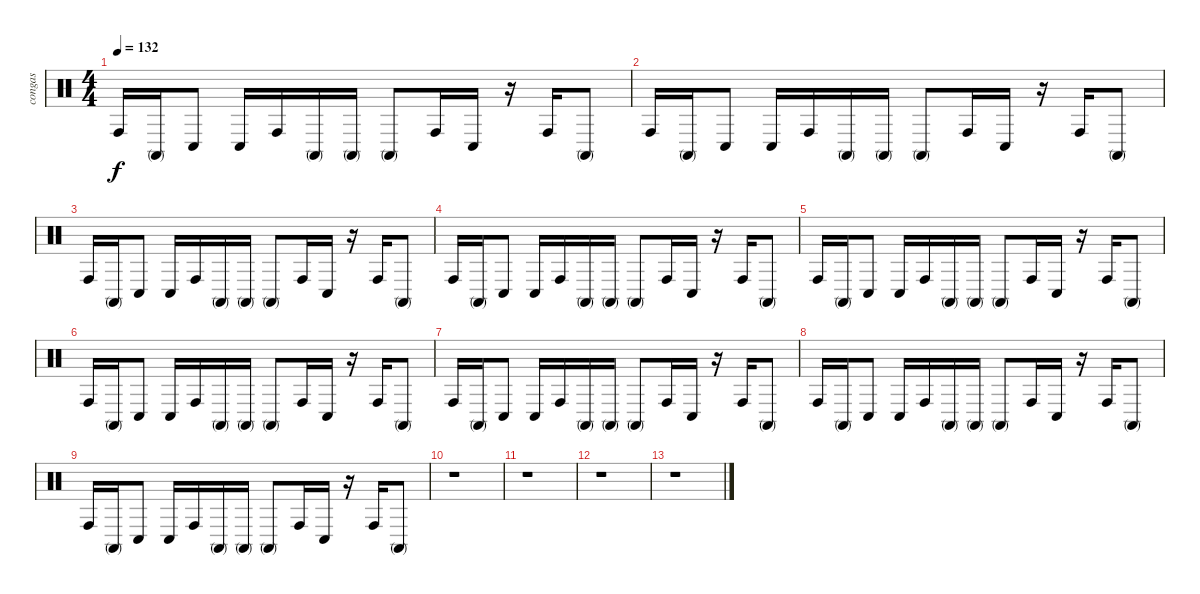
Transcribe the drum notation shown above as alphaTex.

\track ("congas" "congas") {instrument percussion}
\staff {score}
\articulation defaults
\ts (4 4)
\tempo 132
\clef neutral
\ks c "Conga high (hit)".16{dy f} "Conga high (mute)".16 "Conga low (hit)".8 "Conga low (hit)".16 "Conga high (hit)".16 "Conga high (mute)".16 "Conga high (mute)".16 "Conga high (mute)".8 "Conga high (hit)".16 "Conga low (hit)".16
r.16 "Conga high (hit)".16 "Conga high (mute)".8 |
"Conga high (hit)".16 "Conga high (mute)".16 "Conga low (hit)".8 "Conga low (hit)".16 "Conga high (hit)".16 "Conga high (mute)".16 "Conga high (mute)".16 "Conga high (mute)".8 "Conga high (hit)".16 "Conga low (hit)".16 r.16 "Conga high (hit)".16 "Conga high (mute)".8 |
"Conga high (hit)".16 "Conga high (mute)".16 "Conga low (hit)".8 "Conga low (hit)".16 "Conga high (hit)".16 "Conga high (mute)".16 "Conga high (mute)".16 "Conga high (mute)".8 "Conga high (hit)".16 "Conga low (hit)".16 r.16 "Conga high (hit)".16 "Conga high (mute)".8 |
"Conga high (hit)".16 "Conga high (mute)".16 "Conga low (hit)".8 "Conga low (hit)".16 "Conga high (hit)".16 "Conga high (mute)".16 "Conga high (mute)".16 "Conga high (mute)".8 "Conga high (hit)".16 "Conga low (hit)".16 r.16 "Conga high (hit)".16 "Conga high (mute)".8 |
"Conga high (hit)".16 "Conga high (mute)".16 "Conga low (hit)".8 "Conga low (hit)".16 "Conga high (hit)".16 "Conga high (mute)".16 "Conga high (mute)".16 "Conga high (mute)".8 "Conga high (hit)".16 "Conga low (hit)".16 r.16 "Conga high (hit)".16 "Conga high (mute)".8 |
"Conga high (hit)".16 "Conga high (mute)".16 "Conga low (hit)".8 "Conga low (hit)".16 "Conga high (hit)".16 "Conga high (mute)".16 "Conga high (mute)".16 "Conga high (mute)".8 "Conga high (hit)".16 "Conga low (hit)".16 r.16 "Conga high (hit)".16 "Conga high (mute)".8 |
"Conga high (hit)".16 "Conga high (mute)".16 "Conga low (hit)".8 "Conga low (hit)".16 "Conga high (hit)".16 "Conga high (mute)".16 "Conga high (mute)".16 "Conga high (mute)".8 "Conga high (hit)".16 "Conga low (hit)".16 r.16 "Conga high (hit)".16 "Conga high (mute)".8 |
"Conga high (hit)".16 "Conga high (mute)".16 "Conga low (hit)".8 "Conga low (hit)".16 "Conga high (hit)".16 "Conga high (mute)".16 "Conga high (mute)".16 "Conga high (mute)".8 "Conga high (hit)".16 "Conga low (hit)".16 r.16 "Conga high (hit)".16 "Conga high (mute)".8 |
"Conga high (hit)".16 "Conga high (mute)".16 "Conga low (hit)".8 "Conga low (hit)".16 "Conga high (hit)".16 "Conga high (mute)".16 "Conga high (mute)".16 "Conga high (mute)".8 "Conga high (hit)".16 "Conga low (hit)".16 r.16 "Conga high (hit)".16 "Conga high (mute)".8 |
r.1 |
r.1 |
r.1 |
r.1
